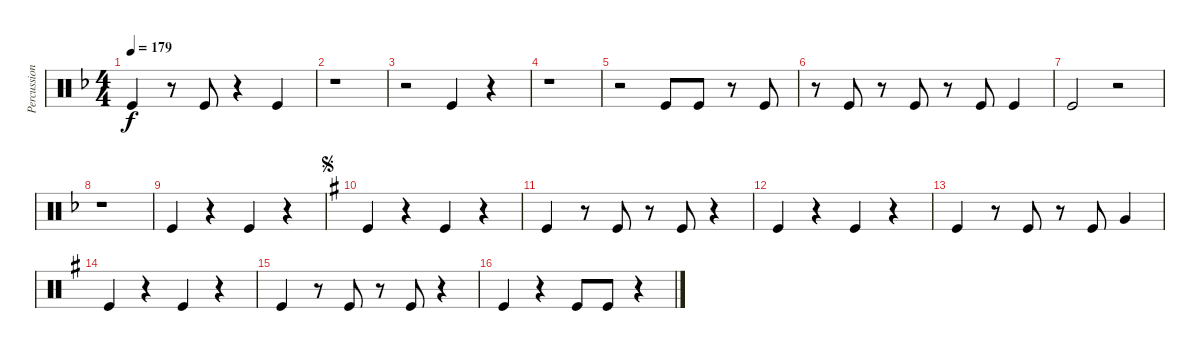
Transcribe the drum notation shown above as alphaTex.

\track ("Percussion 02" "Percussion") {instrument percussion}
\staff {score}
\articulation defaults
\ts (4 4)
\tempo 179
\clef neutral
\ks dminor "Kick (hit)".4{dy f}
r.8 "Kick (hit)".8 r.4 "Kick (hit)".4 |
r.1 |
r.2 "Kick (hit)".4 r.4 |
r.1 |
r.2 "Kick (hit)".8 "Kick (hit)".8 r.8 "Kick (hit)".8 |
r.8 "Kick (hit)".8 r.8 "Kick (hit)".8 r.8 "Kick (hit)".8 "Kick (hit)".4 |
"Kick (hit)".2 r.2 |
r.1 |
"Kick (hit)".4 r.4 "Kick (hit)".4 r.4 |
\jump segno
\ks g "Kick (hit)".4
r.4 "Kick (hit)".4 r.4 |
"Kick (hit)".4 r.8 "Kick (hit)".8 r.8 "Kick (hit)".8 r.4 |
"Kick (hit)".4 r.4 "Kick (hit)".4 r.4 |
"Kick (hit)".4 r.8 "Kick (hit)".8 r.8 "Kick (hit)".8 "Very Low Tom (hit)".4 |
"Kick (hit)".4 r.4 "Kick (hit)".4 r.4 |
"Kick (hit)".4 r.8 "Kick (hit)".8 r.8 "Kick (hit)".8 r.4 |
"Kick (hit)".4 r.4 "Kick (hit)".8 "Kick (hit)".8 r.4
